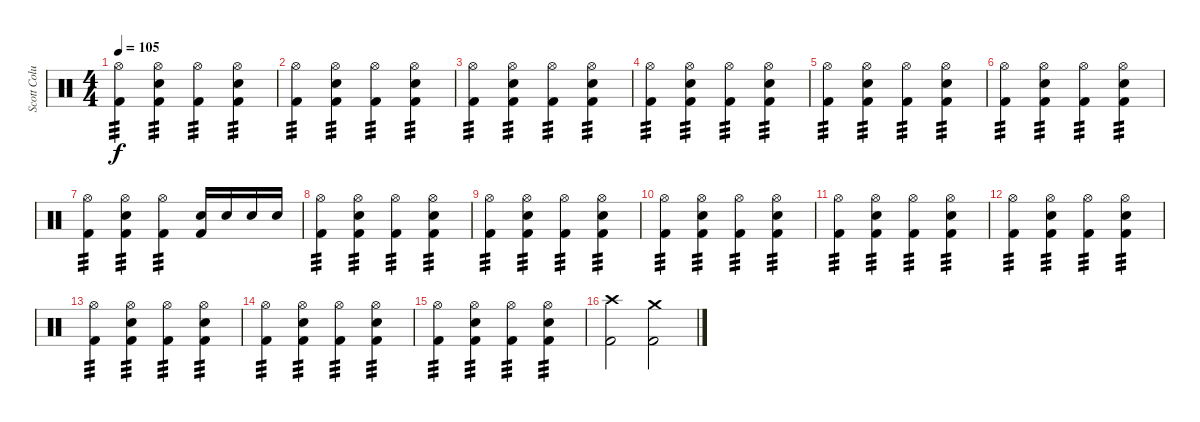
\track ("Scott Columbus" "Scott Colu") {instrument percussion}
\staff {score}
\articulation defaults
\ts (4 4)
\tempo 105
\clef neutral
\ks c
("Hi-Hat (open)" "Kick (hit) 2").4{tp 3 dy f} ("Hi-Hat (open)" "Snare (hit) 2" "Kick (hit) 2").4{tp 3} ("Hi-Hat (open)" "Kick (hit) 2").4{tp 3} ("Hi-Hat (open)" "Snare (hit) 2" "Kick (hit) 2").4{tp 3} |
("Hi-Hat (open)" "Kick (hit) 2").4{tp 3} ("Hi-Hat (open)" "Snare (hit) 2" "Kick (hit) 2").4{tp 3} ("Hi-Hat (open)" "Kick (hit) 2").4{tp 3} ("Hi-Hat (open)" "Snare (hit) 2" "Kick (hit) 2").4{tp 3} |
("Hi-Hat (open)" "Kick (hit) 2").4{tp 3} ("Hi-Hat (open)" "Snare (hit) 2" "Kick (hit) 2").4{tp 3} ("Hi-Hat (open)" "Kick (hit) 2").4{tp 3} ("Hi-Hat (open)" "Snare (hit) 2" "Kick (hit) 2").4{tp 3} |
("Hi-Hat (open)" "Kick (hit) 2").4{tp 3} ("Hi-Hat (open)" "Snare (hit) 2" "Kick (hit) 2").4{tp 3} ("Hi-Hat (open)" "Kick (hit) 2").4{tp 3} ("Hi-Hat (open)" "Snare (hit) 2" "Kick (hit) 2").4{tp 3} |
("Hi-Hat (open)" "Kick (hit) 2").4{tp 3} ("Hi-Hat (open)" "Snare (hit) 2" "Kick (hit) 2").4{tp 3} ("Hi-Hat (open)" "Kick (hit) 2").4{tp 3} ("Hi-Hat (open)" "Snare (hit) 2" "Kick (hit) 2").4{tp 3} |
("Hi-Hat (open)" "Kick (hit) 2").4{tp 3} ("Hi-Hat (open)" "Snare (hit) 2" "Kick (hit) 2").4{tp 3} ("Hi-Hat (open)" "Kick (hit) 2").4{tp 3} ("Hi-Hat (open)" "Snare (hit) 2" "Kick (hit) 2").4{tp 3} |
("Hi-Hat (open)" "Kick (hit) 2").4{tp 3} ("Hi-Hat (open)" "Snare (hit) 2" "Kick (hit) 2").4{tp 3} ("Hi-Hat (open)" "Kick (hit) 2").4{tp 3} ("Snare (hit) 2" "Kick (hit) 2").16 "Snare (hit) 2".16 "Snare (hit) 2".16 "Snare (hit) 2".16 |
("Hi-Hat (open)" "Kick (hit) 2").4{tp 3} ("Hi-Hat (open)" "Snare (hit) 2" "Kick (hit) 2").4{tp 3} ("Hi-Hat (open)" "Kick (hit) 2").4{tp 3} ("Hi-Hat (open)" "Snare (hit) 2" "Kick (hit) 2").4{tp 3} |
("Hi-Hat (open)" "Kick (hit) 2").4{tp 3} ("Hi-Hat (open)" "Snare (hit) 2" "Kick (hit) 2").4{tp 3} ("Hi-Hat (open)" "Kick (hit) 2").4{tp 3} ("Hi-Hat (open)" "Snare (hit) 2" "Kick (hit) 2").4{tp 3} |
("Hi-Hat (open)" "Kick (hit) 2").4{tp 3} ("Hi-Hat (open)" "Snare (hit) 2" "Kick (hit) 2").4{tp 3} ("Hi-Hat (open)" "Kick (hit) 2").4{tp 3} ("Hi-Hat (open)" "Snare (hit) 2" "Kick (hit) 2").4{tp 3} |
("Hi-Hat (open)" "Kick (hit) 2").4{tp 3} ("Hi-Hat (open)" "Snare (hit) 2" "Kick (hit) 2").4{tp 3} ("Hi-Hat (open)" "Kick (hit) 2").4{tp 3} ("Hi-Hat (open)" "Snare (hit) 2" "Kick (hit) 2").4{tp 3} |
("Hi-Hat (open)" "Kick (hit) 2").4{tp 3} ("Hi-Hat (open)" "Snare (hit) 2" "Kick (hit) 2").4{tp 3} ("Hi-Hat (open)" "Kick (hit) 2").4{tp 3} ("Hi-Hat (open)" "Snare (hit) 2" "Kick (hit) 2").4{tp 3} |
("Hi-Hat (open)" "Kick (hit) 2").4{tp 3} ("Hi-Hat (open)" "Snare (hit) 2" "Kick (hit) 2").4{tp 3} ("Hi-Hat (open)" "Kick (hit) 2").4{tp 3} ("Hi-Hat (open)" "Snare (hit) 2" "Kick (hit) 2").4{tp 3} |
("Hi-Hat (open)" "Kick (hit) 2").4{tp 3} ("Hi-Hat (open)" "Snare (hit) 2" "Kick (hit) 2").4{tp 3} ("Hi-Hat (open)" "Kick (hit) 2").4{tp 3} ("Hi-Hat (open)" "Snare (hit) 2" "Kick (hit) 2").4{tp 3} |
("Hi-Hat (open)" "Kick (hit) 2").4{tp 3} ("Hi-Hat (open)" "Snare (hit) 2" "Kick (hit) 2").4{tp 3} ("Hi-Hat (open)" "Kick (hit) 2").4{tp 3} ("Hi-Hat (open)" "Snare (hit) 2" "Kick (hit) 2").4{tp 3} |
("Crash high (hit)" "Kick (hit) 2").2 ("Crash medium (hit)" "Kick (hit) 2").2
